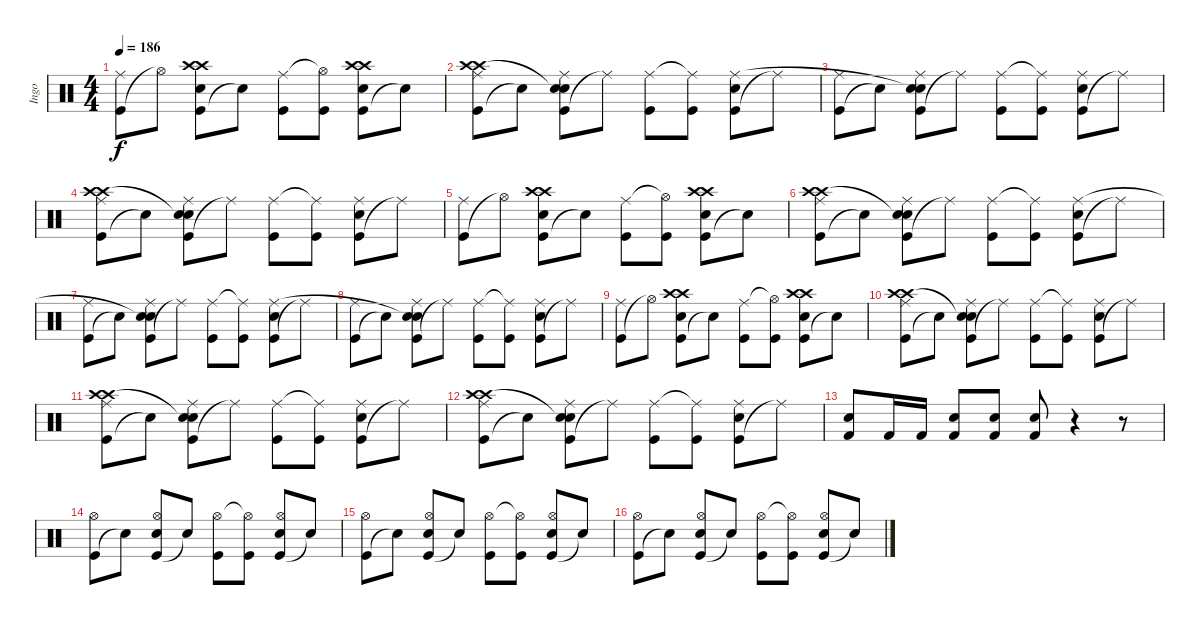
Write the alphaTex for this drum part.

\track ("Ingo" "Ingo") {instrument percussion}
\staff {score}
\articulation defaults
\ts (4 4)
\tempo 186
\clef neutral
\ks c
("Kick (hit)" "Ride (middle)").8{dy f} "Hi-Hat (open)"{t}.8 ("Kick (hit)" "Snare (hit) 2" "Crash high (hit)" "Crash high (hit)").8 "Snare (hit)"{t}.8 ("Kick (hit)" "Ride (middle)").8 ("Kick (hit)" "Hi-Hat (open)"{t}).8 ("Kick (hit)" "Snare (hit) 2" "Crash high (hit)" "Crash high (hit)").8 "Snare (hit)"{t}.8 |
("Kick (hit)" "Ride (middle)" "Crash high (hit)" "Crash high (hit)").8 "Snare (hit)"{t}.8 ("Kick (hit)" "Snare (hit) 2" "Snare (hit)"{t} "Ride (middle)").8 "Ride (middle)"{t}.8 ("Kick (hit)" "Ride (middle)").8 ("Kick (hit)" "Ride (middle)"{t}).8 ("Kick (hit)" "Snare (hit) 2" "Ride (middle)").8 "Ride (middle)"{t}.8 |
("Kick (hit)" "Ride (middle)").8 "Snare (hit)"{t}.8 ("Kick (hit)" "Snare (hit) 2" "Snare (hit)"{t} "Ride (middle)").8 "Ride (middle)"{t}.8 ("Kick (hit)" "Ride (middle)").8 ("Kick (hit)" "Ride (middle)"{t}).8 ("Kick (hit)" "Snare (hit) 2" "Ride (middle)").8 "Ride (middle)"{t}.8 |
("Kick (hit)" "Ride (middle)" "Crash high (hit)" "Crash high (hit)").8 "Snare (hit)"{t}.8 ("Kick (hit)" "Snare (hit) 2" "Snare (hit)"{t} "Ride (middle)").8 "Ride (middle)"{t}.8 ("Kick (hit)" "Ride (middle)").8 ("Kick (hit)" "Ride (middle)"{t}).8 ("Kick (hit)" "Snare (hit) 2" "Ride (middle)").8 "Ride (middle)"{t}.8 |
("Kick (hit)" "Ride (middle)").8 "Hi-Hat (open)"{t}.8 ("Kick (hit)" "Snare (hit) 2" "Crash high (hit)" "Crash high (hit)").8 "Snare (hit)"{t}.8 ("Kick (hit)" "Ride (middle)").8 ("Kick (hit)" "Hi-Hat (open)"{t}).8 ("Kick (hit)" "Snare (hit) 2" "Crash high (hit)" "Crash high (hit)").8 "Snare (hit)"{t}.8 |
("Kick (hit)" "Ride (middle)" "Crash high (hit)" "Crash high (hit)").8 "Snare (hit)"{t}.8 ("Kick (hit)" "Snare (hit) 2" "Snare (hit)"{t} "Ride (middle)").8 "Ride (middle)"{t}.8 ("Kick (hit)" "Ride (middle)").8 ("Kick (hit)" "Ride (middle)"{t}).8 ("Kick (hit)" "Snare (hit) 2" "Ride (middle)").8 "Ride (middle)"{t}.8 |
("Kick (hit)" "Ride (middle)").8 "Snare (hit)"{t}.8 ("Kick (hit)" "Snare (hit) 2" "Snare (hit)"{t} "Ride (middle)").8 "Ride (middle)"{t}.8 ("Kick (hit)" "Ride (middle)").8 ("Kick (hit)" "Ride (middle)"{t}).8 ("Kick (hit)" "Snare (hit) 2" "Ride (middle)").8 "Ride (middle)"{t}.8 |
("Kick (hit)" "Ride (middle)").8 "Snare (hit)"{t}.8 ("Kick (hit)" "Snare (hit) 2" "Snare (hit)"{t} "Ride (middle)").8 "Ride (middle)"{t}.8 ("Kick (hit)" "Ride (middle)").8 ("Kick (hit)" "Ride (middle)"{t}).8 ("Kick (hit)" "Snare (hit) 2" "Ride (middle)").8 "Ride (middle)"{t}.8 |
("Kick (hit)" "Ride (middle)").8 "Hi-Hat (open)"{t}.8 ("Kick (hit)" "Snare (hit) 2" "Crash high (hit)" "Crash high (hit)").8 "Snare (hit)"{t}.8 ("Kick (hit)" "Ride (middle)").8 ("Kick (hit)" "Hi-Hat (open)"{t}).8 ("Kick (hit)" "Snare (hit) 2" "Crash high (hit)" "Crash high (hit)").8 "Snare (hit)"{t}.8 |
("Kick (hit)" "Ride (middle)" "Crash high (hit)" "Crash high (hit)").8 "Snare (hit)"{t}.8 ("Kick (hit)" "Snare (hit) 2" "Snare (hit)"{t} "Ride (middle)").8 "Ride (middle)"{t}.8 ("Kick (hit)" "Ride (middle)").8 ("Kick (hit)" "Ride (middle)"{t}).8 ("Kick (hit)" "Snare (hit) 2" "Ride (middle)").8 "Ride (middle)"{t}.8 |
("Kick (hit)" "Ride (middle)" "Crash high (hit)" "Crash high (hit)").8 "Snare (hit)"{t}.8 ("Kick (hit)" "Snare (hit) 2" "Snare (hit)"{t} "Ride (middle)").8 "Ride (middle)"{t}.8 ("Kick (hit)" "Ride (middle)").8 ("Kick (hit)" "Ride (middle)"{t}).8 ("Kick (hit)" "Snare (hit) 2" "Ride (middle)").8 "Ride (middle)"{t}.8 |
("Kick (hit)" "Ride (middle)" "Crash high (hit)" "Crash high (hit)").8 "Snare (hit)"{t}.8 ("Kick (hit)" "Snare (hit) 2" "Snare (hit)"{t} "Ride (middle)").8 "Ride (middle)"{t}.8 ("Kick (hit)" "Ride (middle)").8 ("Kick (hit)" "Ride (middle)"{t}).8 ("Kick (hit)" "Snare (hit) 2" "Ride (middle)").8 "Ride (middle)"{t}.8 |
("Kick (hit) 2" "Snare (hit) 2").8 "Kick (hit) 2".16 "Kick (hit) 2".16 ("Kick (hit) 2" "Snare (hit) 2").8 ("Kick (hit) 2" "Snare (hit) 2").8 ("Kick (hit) 2" "Snare (hit) 2").8 r.4 r.8 |
("Kick (hit)" "Hi-Hat (open)").8 "Snare (hit)"{t}.8 ("Kick (hit)" "Snare (hit) 2" "Hi-Hat (open)").8 "Snare (hit)"{t}.8 ("Kick (hit)" "Hi-Hat (open)").8 ("Kick (hit)" "Hi-Hat (open)"{t}).8 ("Kick (hit)" "Snare (hit) 2" "Hi-Hat (open)").8 "Snare (hit)"{t}.8 |
("Kick (hit)" "Hi-Hat (open)").8 "Snare (hit)"{t}.8 ("Kick (hit)" "Snare (hit) 2" "Hi-Hat (open)").8 "Snare (hit)"{t}.8 ("Kick (hit)" "Hi-Hat (open)").8 ("Kick (hit)" "Hi-Hat (open)"{t}).8 ("Kick (hit)" "Snare (hit) 2" "Hi-Hat (open)").8 "Snare (hit)"{t}.8 |
("Kick (hit)" "Hi-Hat (open)").8 "Snare (hit)"{t}.8 ("Kick (hit)" "Snare (hit) 2" "Hi-Hat (open)").8 "Snare (hit)"{t}.8 ("Kick (hit)" "Hi-Hat (open)").8 ("Kick (hit)" "Hi-Hat (open)"{t}).8 ("Kick (hit)" "Snare (hit) 2" "Hi-Hat (open)").8 "Snare (hit)"{t}.8
